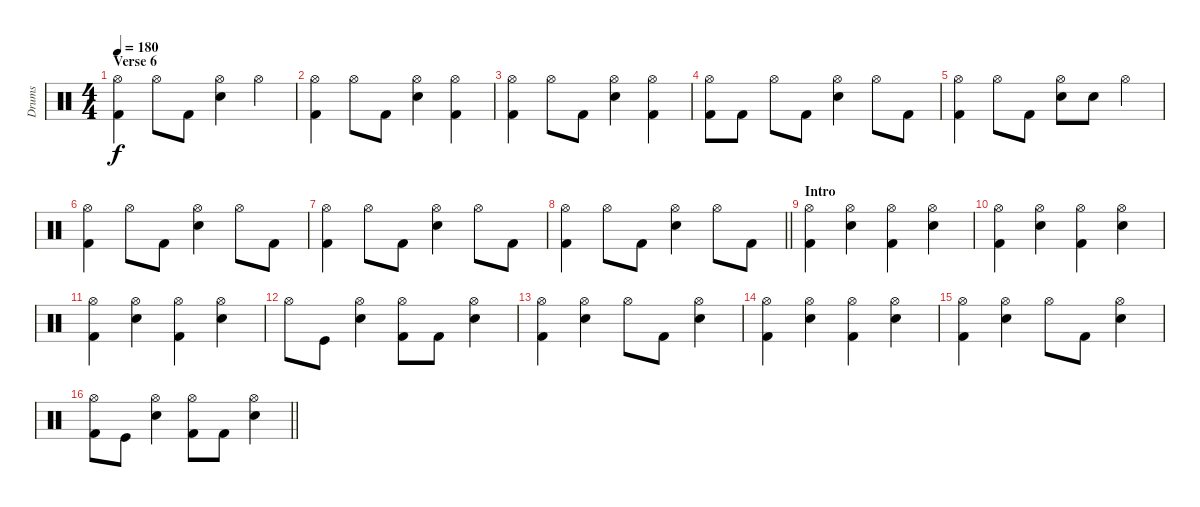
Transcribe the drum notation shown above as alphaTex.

\track ("Drums" "Drums") {instrument percussion}
\staff {score}
\articulation defaults
\ts (4 4)
\section ("" "Verse 6")
\tempo 180
\clef neutral
\ks c
("Hi-Hat (open)" "Kick (hit) 2").4{dy f} "Hi-Hat (open)".8 "Kick (hit) 2".8 ("Hi-Hat (open)" "Electric Snare (hit)").4 "Hi-Hat (open)".4 |
("Hi-Hat (open)" "Kick (hit) 2").4 "Hi-Hat (open)".8 "Kick (hit) 2".8 ("Hi-Hat (open)" "Electric Snare (hit)").4 ("Hi-Hat (open)" "Kick (hit) 2").4 |
("Hi-Hat (open)" "Kick (hit) 2").4 "Hi-Hat (open)".8 "Kick (hit) 2".8 ("Hi-Hat (open)" "Electric Snare (hit)").4 ("Hi-Hat (open)" "Kick (hit) 2").4 |
("Hi-Hat (open)" "Kick (hit) 2").8 "Kick (hit) 2".8 "Hi-Hat (open)".8 "Kick (hit) 2".8 ("Hi-Hat (open)" "Electric Snare (hit)").4 "Hi-Hat (open)".8 "Kick (hit) 2".8 |
("Hi-Hat (open)" "Kick (hit) 2").4 "Hi-Hat (open)".8 "Kick (hit) 2".8 ("Hi-Hat (open)" "Electric Snare (hit)").8 "Electric Snare (hit)".8 "Hi-Hat (open)".4 |
("Hi-Hat (open)" "Kick (hit) 2").4 "Hi-Hat (open)".8 "Kick (hit) 2".8 ("Hi-Hat (open)" "Electric Snare (hit)").4 "Hi-Hat (open)".8 "Kick (hit) 2".8 |
("Hi-Hat (open)" "Kick (hit) 2").4 "Hi-Hat (open)".8 "Kick (hit) 2".8 ("Hi-Hat (open)" "Electric Snare (hit)").4 "Hi-Hat (open)".8 "Kick (hit) 2".8 |
\barLineRight lightlight
("Hi-Hat (open)" "Kick (hit) 2").4 "Hi-Hat (open)".8 "Kick (hit) 2".8 ("Hi-Hat (open)" "Electric Snare (hit)").4 "Hi-Hat (open)".8 "Kick (hit) 2".8 |
\section ("" "Intro")
("Hi-Hat (open)" "Kick (hit) 2").4 ("Hi-Hat (open)" "Electric Snare (hit)").4 ("Hi-Hat (open)" "Kick (hit) 2").4 ("Hi-Hat (open)" "Electric Snare (hit)").4 |
("Hi-Hat (open)" "Kick (hit) 2").4 ("Hi-Hat (open)" "Electric Snare (hit)").4 ("Hi-Hat (open)" "Kick (hit) 2").4 ("Hi-Hat (open)" "Electric Snare (hit)").4 |
("Hi-Hat (open)" "Kick (hit) 2").4 ("Hi-Hat (open)" "Electric Snare (hit)").4 ("Hi-Hat (open)" "Kick (hit) 2").4 ("Hi-Hat (open)" "Electric Snare (hit)").4 |
"Hi-Hat (open)".8 "Kick (hit)".8 ("Hi-Hat (open)" "Electric Snare (hit)").4 ("Hi-Hat (open)" "Kick (hit) 2").8 "Kick (hit) 2".8 ("Hi-Hat (open)" "Electric Snare (hit)").4 |
("Hi-Hat (open)" "Kick (hit) 2").4 ("Hi-Hat (open)" "Electric Snare (hit)").4 "Hi-Hat (open)".8 "Kick (hit) 2".8 ("Hi-Hat (open)" "Electric Snare (hit)").4 |
("Hi-Hat (open)" "Kick (hit) 2").4 ("Hi-Hat (open)" "Electric Snare (hit)").4 ("Hi-Hat (open)" "Kick (hit) 2").4 ("Hi-Hat (open)" "Electric Snare (hit)").4 |
("Hi-Hat (open)" "Kick (hit) 2").4 ("Hi-Hat (open)" "Electric Snare (hit)").4 "Hi-Hat (open)".8 "Kick (hit) 2".8 ("Hi-Hat (open)" "Electric Snare (hit)").4 |
\barLineRight lightlight
("Hi-Hat (open)" "Kick (hit) 2").8 "Kick (hit)".8 ("Hi-Hat (open)" "Electric Snare (hit)").4 ("Hi-Hat (open)" "Kick (hit) 2").8 "Kick (hit) 2".8 ("Hi-Hat (open)" "Electric Snare (hit)").4
